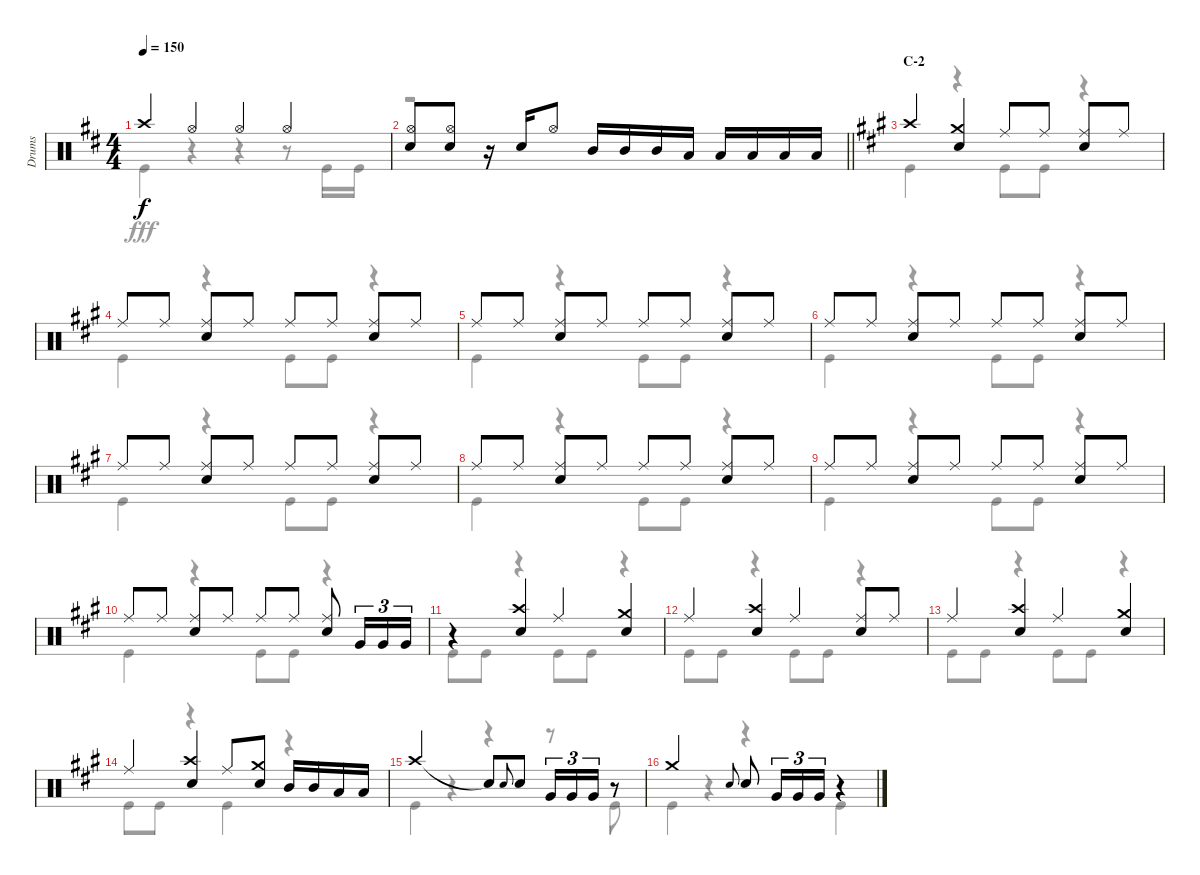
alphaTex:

\track ("Drums" "Drums") {instrument percussion}
\staff {score}
\articulation defaults
\voice
\ts (4 4)
\tempo 150
\clef neutral
\ks d "Crash high (hit)".4{dy f} "Hi-Hat (open)".4 "Hi-Hat (open)".4 "Hi-Hat (open)".4
|
\barLineRight lightlight
("Hi-Hat (open)" "Snare (hit) 2").8 ("Hi-Hat (open)" "Snare (hit) 2").8 r.16 "Snare (hit) 2".16 "Hi-Hat (open)".8 "Mid Tom (hit)".16 "Mid Tom (hit)".16 "Mid Tom (hit)".16 "Low Tom (hit)".16 "Low Tom (hit)".16 "Low Tom (hit)".16 "Low Tom (hit)".16 "Low Tom (hit)".16 |
\section ("" "C-2")
\ks a "Crash high (hit)".4
("Crash medium (hit)" "Snare (hit) 2").4 "Ride (middle)".8 "Ride (middle)".8 ("Ride (middle)" "Snare (hit) 2").8 "Ride (middle)".8 |
"Ride (middle)".8 "Ride (middle)".8 ("Ride (middle)" "Snare (hit) 2").8 "Ride (middle)".8 "Ride (middle)".8 "Ride (middle)".8 ("Ride (middle)" "Snare (hit) 2").8 "Ride (middle)".8 |
"Ride (middle)".8 "Ride (middle)".8 ("Ride (middle)" "Snare (hit) 2").8 "Ride (middle)".8 "Ride (middle)".8 "Ride (middle)".8 ("Ride (middle)" "Snare (hit) 2").8 "Ride (middle)".8 |
"Ride (middle)".8 "Ride (middle)".8 ("Ride (middle)" "Snare (hit) 2").8 "Ride (middle)".8 "Ride (middle)".8 "Ride (middle)".8 ("Ride (middle)" "Snare (hit) 2").8 "Ride (middle)".8 |
"Ride (middle)".8 "Ride (middle)".8 ("Ride (middle)" "Snare (hit) 2").8 "Ride (middle)".8 "Ride (middle)".8 "Ride (middle)".8 ("Ride (middle)" "Snare (hit) 2").8 "Ride (middle)".8 |
"Ride (middle)".8 "Ride (middle)".8 ("Ride (middle)" "Snare (hit) 2").8 "Ride (middle)".8 "Ride (middle)".8 "Ride (middle)".8 ("Ride (middle)" "Snare (hit) 2").8 "Ride (middle)".8 |
"Ride (middle)".8 "Ride (middle)".8 ("Ride (middle)" "Snare (hit) 2").8 "Ride (middle)".8 "Ride (middle)".8 "Ride (middle)".8 ("Ride (middle)" "Snare (hit) 2").8 "Ride (middle)".8 |
"Ride (middle)".8 "Ride (middle)".8 ("Ride (middle)" "Snare (hit) 2").8 "Ride (middle)".8 "Ride (middle)".8 "Ride (middle)".8 ("Ride (middle)" "Snare (hit) 2").8 "Very Low Tom (hit)".16{tu (3 2)} "Very Low Tom (hit)".16{tu (3 2)} "Very Low Tom (hit)".16{tu (3 2)} |
r.4 ("Crash high (hit)" "Snare (hit) 2").4 "Ride (middle)".4 ("Crash medium (hit)" "Snare (hit) 2").4 |
"Ride (middle)".4 ("Crash high (hit)" "Snare (hit) 2").4 "Ride (middle)".4 ("Ride (middle)" "Snare (hit) 2").8 "Ride (middle)".8 |
"Ride (middle)".4 ("Crash high (hit)" "Snare (hit) 2").4 "Ride (middle)".4 ("Crash medium (hit)" "Snare (hit) 2").4 |
"Ride (middle)".4 ("Crash high (hit)" "Snare (hit) 2").4 "Ride (middle)".8 ("Crash medium (hit)" "Snare (hit) 2").8 "Mid Tom (hit)".16 "Mid Tom (hit)".16 "Low Tom (hit)".16 "Low Tom (hit)".16 |
"Crash high (hit)".2 "Snare (hit)"{t}.8 "Snare (hit) 2".8{gr onbeat} "Snare (hit) 2".8 "Very Low Tom (hit)".16{tu (3 2)} "Very Low Tom (hit)".16{tu (3 2)} "Very Low Tom (hit)".16{tu (3 2)} r.8 |
"Crash medium (hit)".2 "Snare (hit) 2".8{gr onbeat} "Snare (hit) 2".8 "Very Low Tom (hit)".16{tu (3 2)} "Very Low Tom (hit)".16{tu (3 2)} "Very Low Tom (hit)".16{tu (3 2)} r.4
\voice
\clef neutral
\ottava regular
\simile none
\ks d "Kick (hit)".4{dy fff}
r.4 r.4 r.8 "Kick (hit)".16 "Kick (hit)".16 |
\barLineRight lightlight
r.1 |
\ks a "Kick (hit)".4
r.4 "Kick (hit)".8 "Kick (hit)".8 r.4 |
"Kick (hit)".4 r.4 "Kick (hit)".8 "Kick (hit)".8 r.4 |
"Kick (hit)".4 r.4 "Kick (hit)".8 "Kick (hit)".8 r.4 |
"Kick (hit)".4 r.4 "Kick (hit)".8 "Kick (hit)".8 r.4 |
"Kick (hit)".4 r.4 "Kick (hit)".8 "Kick (hit)".8 r.4 |
"Kick (hit)".4 r.4 "Kick (hit)".8 "Kick (hit)".8 r.4 |
"Kick (hit)".4 r.4 "Kick (hit)".8 "Kick (hit)".8 r.4 |
"Kick (hit)".4 r.4 "Kick (hit)".8 "Kick (hit)".8 r.4 |
"Kick (hit)".8 "Kick (hit)".8 r.4 "Kick (hit)".8 "Kick (hit)".8 r.4 |
"Kick (hit)".8 "Kick (hit)".8 r.4 "Kick (hit)".8 "Kick (hit)".8 r.4 |
"Kick (hit)".8 "Kick (hit)".8 r.4 "Kick (hit)".8 "Kick (hit)".8 r.4 |
"Kick (hit)".8 "Kick (hit)".8 r.4 "Kick (hit)".4 r.4 |
"Kick (hit)".4 r.4 r.4 r.8 "Kick (hit)".8 |
"Kick (hit)".4 r.4 r.4 "Kick (hit)".4
